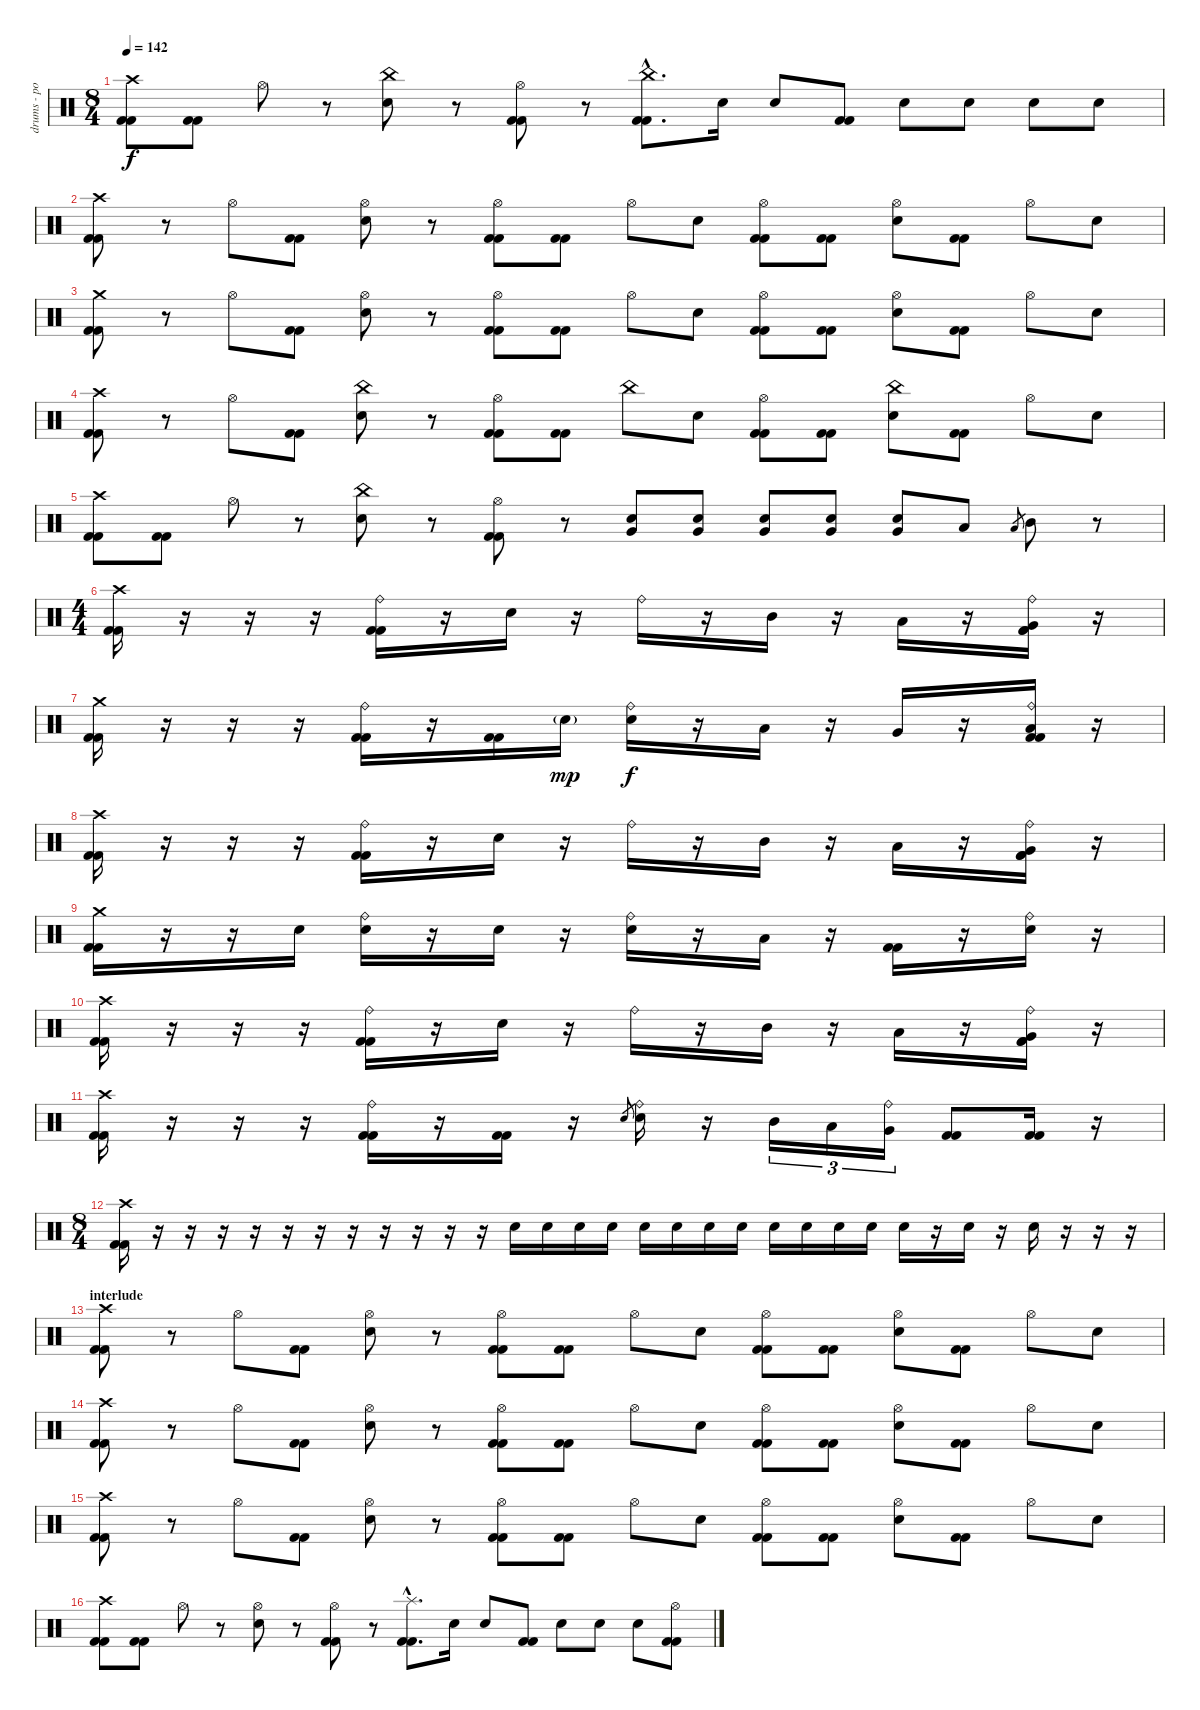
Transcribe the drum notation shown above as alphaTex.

\track ("drums - portnoy" "drums - po") {instrument percussion}
\staff {score}
\articulation defaults
\ts (8 4)
\tempo 142
\clef neutral
\ks c
("Crash high (hit)" "Kick (hit) 2" "Kick (hit) 2").8{dy f} ("Kick (hit) 2" "Kick (hit) 2").8 "Hi-Hat (open)".8 r.8 ("China (hit)" "Electric Snare (hit)").8 r.8 ("Hi-Hat (open)" "Kick (hit) 2" "Kick (hit) 2").8 r.8 ("China (hit)"{hac} "Kick (hit) 2"{hac} "Kick (hit) 2"{hac}).8{d} "Electric Snare (hit)".16 "Electric Snare (hit)".8 ("Kick (hit) 2" "Kick (hit) 2").8 "Electric Snare (hit)".8 "Electric Snare (hit)".8 "Electric Snare (hit)".8 "Electric Snare (hit)".8 |
("Crash high (hit)" "Kick (hit) 2" "Kick (hit) 2").8 r.8 "Hi-Hat (open)".8 ("Kick (hit) 2" "Kick (hit) 2").8 ("Hi-Hat (open)" "Electric Snare (hit)").8 r.8 ("Hi-Hat (open)" "Kick (hit) 2" "Kick (hit) 2").8 ("Kick (hit) 2" "Kick (hit) 2").8 "Hi-Hat (open)".8 "Electric Snare (hit)".8 ("Hi-Hat (open)" "Kick (hit) 2" "Kick (hit) 2").8 ("Kick (hit) 2" "Kick (hit) 2").8 ("Hi-Hat (open)" "Electric Snare (hit)").8 ("Kick (hit) 2" "Kick (hit) 2").8 "Hi-Hat (open)".8 "Electric Snare (hit)".8 |
("Crash medium (hit)" "Kick (hit) 2" "Kick (hit) 2").8 r.8 "Hi-Hat (open)".8 ("Kick (hit) 2" "Kick (hit) 2").8 ("Hi-Hat (open)" "Electric Snare (hit)").8 r.8 ("Hi-Hat (open)" "Kick (hit) 2" "Kick (hit) 2").8 ("Kick (hit) 2" "Kick (hit) 2").8 "Hi-Hat (open)".8 "Electric Snare (hit)".8 ("Hi-Hat (open)" "Kick (hit) 2" "Kick (hit) 2").8 ("Kick (hit) 2" "Kick (hit) 2").8 ("Hi-Hat (open)" "Electric Snare (hit)").8 ("Kick (hit) 2" "Kick (hit) 2").8 "Hi-Hat (open)".8 "Electric Snare (hit)".8 |
("Crash high (hit)" "Kick (hit) 2" "Kick (hit) 2").8 r.8 "Hi-Hat (open)".8 ("Kick (hit) 2" "Kick (hit) 2").8 ("China (hit)" "Electric Snare (hit)").8 r.8 ("Hi-Hat (open)" "Kick (hit) 2" "Kick (hit) 2").8 ("Kick (hit) 2" "Kick (hit) 2").8 "China (hit)".8 "Electric Snare (hit)".8 ("Hi-Hat (open)" "Kick (hit) 2" "Kick (hit) 2").8 ("Kick (hit) 2" "Kick (hit) 2").8 ("China (hit)" "Electric Snare (hit)").8 ("Kick (hit) 2" "Kick (hit) 2").8 "Hi-Hat (open)".8 "Electric Snare (hit)".8 |
("Crash high (hit)" "Kick (hit) 2" "Kick (hit) 2").8 ("Kick (hit) 2" "Kick (hit) 2").8 "Hi-Hat (open)".8 r.8 ("China (hit)" "Electric Snare (hit)").8 r.8 ("Hi-Hat (open)" "Kick (hit) 2" "Kick (hit) 2").8 r.8 ("Electric Snare (hit)" "Very Low Tom (hit)").8 ("Electric Snare (hit)" "Very Low Tom (hit)").8 ("Electric Snare (hit)" "Very Low Tom (hit)").8 ("Electric Snare (hit)" "Very Low Tom (hit)").8 ("Electric Snare (hit)" "Very Low Tom (hit)").8 "Low Tom (hit)".8 "Low Tom (hit)".8{gr} "Mid Tom (hit)".8 r.8 |
\ts (4 4)
("Crash high (hit)" "Kick (hit) 2" "Kick (hit) 2").16 r.16 r.16 r.16 ("Ride (bell)" "Kick (hit) 2" "Kick (hit) 2").16 r.16 "Electric Snare (hit)".16 r.16 "Ride (bell)".16 r.16 "Mid Tom (hit)".16 r.16 "Low Tom (hit)".16 r.16 ("Ride (bell)" "Very Low Tom (hit)" "Kick (hit) 2" "Kick (hit) 2").16 r.16 |
("Crash medium (hit)" "Kick (hit) 2" "Kick (hit) 2").16 r.16 r.16 r.16 ("Ride (bell)" "Kick (hit) 2" "Kick (hit) 2").16 r.16 ("Kick (hit) 2" "Kick (hit) 2").16 "Electric Snare (hit)"{g}.16{dy mp} ("Ride (bell)" "Electric Snare (hit)").16{dy f} r.16 "Low Tom (hit)".16 r.16 "Very Low Tom (hit)".16 r.16 ("Ride (bell)" "Low Floor Tom (hit)" "Kick (hit) 2" "Kick (hit) 2").16 r.16 |
("Crash high (hit)" "Kick (hit) 2" "Kick (hit) 2").16 r.16 r.16 r.16 ("Ride (bell)" "Kick (hit) 2" "Kick (hit) 2").16 r.16 "Electric Snare (hit)".16 r.16 "Ride (bell)".16 r.16 "Mid Tom (hit)".16 r.16 "Low Tom (hit)".16 r.16 ("Ride (bell)" "Very Low Tom (hit)" "Kick (hit) 2" "Kick (hit) 2").16 r.16 |
("Crash medium (hit)" "Kick (hit) 2" "Kick (hit) 2").16 r.16 r.16 "Electric Snare (hit)".16 ("Ride (bell)" "Electric Snare (hit)").16 r.16 "Electric Snare (hit)".16 r.16 ("Ride (bell)" "Electric Snare (hit)").16 r.16 "Low Tom (hit)".16 r.16 ("Kick (hit) 2" "Kick (hit) 2").16 r.16 ("Ride (bell)" "Electric Snare (hit)").16 r.16 |
("Crash high (hit)" "Kick (hit) 2" "Kick (hit) 2").16 r.16 r.16 r.16 ("Ride (bell)" "Kick (hit) 2" "Kick (hit) 2").16 r.16 "Electric Snare (hit)".16 r.16 "Ride (bell)".16 r.16 "Mid Tom (hit)".16 r.16 "Low Tom (hit)".16 r.16 ("Ride (bell)" "Very Low Tom (hit)" "Kick (hit) 2" "Kick (hit) 2").16 r.16 |
("Crash high (hit)" "Kick (hit) 2" "Kick (hit) 2").16 r.16 r.16 r.16 ("Ride (bell)" "Kick (hit) 2" "Kick (hit) 2").16 r.16 ("Kick (hit) 2" "Kick (hit) 2").16 r.16 "Electric Snare (hit)".8{gr} ("Ride (bell)" "Electric Snare (hit)").16 r.16 "Mid Tom (hit)".16{tu (3 2)} "Low Tom (hit)".16{tu (3 2)} ("Ride (bell)" "Very Low Tom (hit)").16{tu (3 2)} ("Kick (hit) 2" "Kick (hit) 2").8 ("Kick (hit) 2" "Kick (hit) 2").16 r.16 |
\ts (8 4)
("Crash high (hit)" "Kick (hit) 2" "Kick (hit) 2").16 r.16 r.16 r.16 r.16 r.16 r.16 r.16 r.16 r.16 r.16 r.16{volume 0} "Electric Snare (hit)".16{volume 16} "Electric Snare (hit)".16 "Electric Snare (hit)".16 "Electric Snare (hit)".16 "Electric Snare (hit)".16 "Electric Snare (hit)".16 "Electric Snare (hit)".16 "Electric Snare (hit)".16 "Electric Snare (hit)".16 "Electric Snare (hit)".16 "Electric Snare (hit)".16 "Electric Snare (hit)".16 "Electric Snare (hit)".16 r.16 "Electric Snare (hit)".16 r.16 "Electric Snare (hit)".16 r.16 r.16 r.16 |
\section ("" "interlude")
("Crash high (hit)" "Kick (hit) 2" "Kick (hit) 2").8 r.8 "Hi-Hat (open)".8 ("Kick (hit) 2" "Kick (hit) 2").8 ("Hi-Hat (open)" "Electric Snare (hit)").8 r.8 ("Hi-Hat (open)" "Kick (hit) 2" "Kick (hit) 2").8 ("Kick (hit) 2" "Kick (hit) 2").8 "Hi-Hat (open)".8 "Electric Snare (hit)".8 ("Hi-Hat (open)" "Kick (hit) 2" "Kick (hit) 2").8 ("Kick (hit) 2" "Kick (hit) 2").8 ("Hi-Hat (open)" "Electric Snare (hit)").8 ("Kick (hit) 2" "Kick (hit) 2").8 "Hi-Hat (open)".8 "Electric Snare (hit)".8 |
("Crash high (hit)" "Kick (hit) 2" "Kick (hit) 2").8 r.8 "Hi-Hat (open)".8 ("Kick (hit) 2" "Kick (hit) 2").8 ("Hi-Hat (open)" "Electric Snare (hit)").8 r.8 ("Hi-Hat (open)" "Kick (hit) 2" "Kick (hit) 2").8 ("Kick (hit) 2" "Kick (hit) 2").8 "Hi-Hat (open)".8 "Electric Snare (hit)".8 ("Hi-Hat (open)" "Kick (hit) 2" "Kick (hit) 2").8 ("Kick (hit) 2" "Kick (hit) 2").8 ("Hi-Hat (open)" "Electric Snare (hit)").8 ("Kick (hit) 2" "Kick (hit) 2").8 "Hi-Hat (open)".8 "Electric Snare (hit)".8 |
("Crash high (hit)" "Kick (hit) 2" "Kick (hit) 2").8 r.8 "Hi-Hat (open)".8 ("Kick (hit) 2" "Kick (hit) 2").8 ("Hi-Hat (open)" "Electric Snare (hit)").8 r.8 ("Hi-Hat (open)" "Kick (hit) 2" "Kick (hit) 2").8 ("Kick (hit) 2" "Kick (hit) 2").8 "Hi-Hat (open)".8 "Electric Snare (hit)".8 ("Hi-Hat (open)" "Kick (hit) 2" "Kick (hit) 2").8 ("Kick (hit) 2" "Kick (hit) 2").8 ("Hi-Hat (open)" "Electric Snare (hit)").8 ("Kick (hit) 2" "Kick (hit) 2").8 "Hi-Hat (open)".8 "Electric Snare (hit)".8 |
("Crash high (hit)" "Kick (hit) 2" "Kick (hit) 2").8 ("Kick (hit) 2" "Kick (hit) 2").8 "Hi-Hat (open)".8 r.8 ("Hi-Hat (open)" "Electric Snare (hit)").8 r.8 ("Hi-Hat (open)" "Kick (hit) 2" "Kick (hit) 2").8 r.8 ("Splash (hit)"{hac} "Kick (hit) 2"{hac} "Kick (hit) 2"{hac}).8{d} "Electric Snare (hit)".16 "Electric Snare (hit)".8 ("Kick (hit) 2" "Kick (hit) 2").8 "Electric Snare (hit)".8 "Electric Snare (hit)".8 "Electric Snare (hit)".8 ("Hi-Hat (open)" "Kick (hit) 2" "Kick (hit) 2").8
